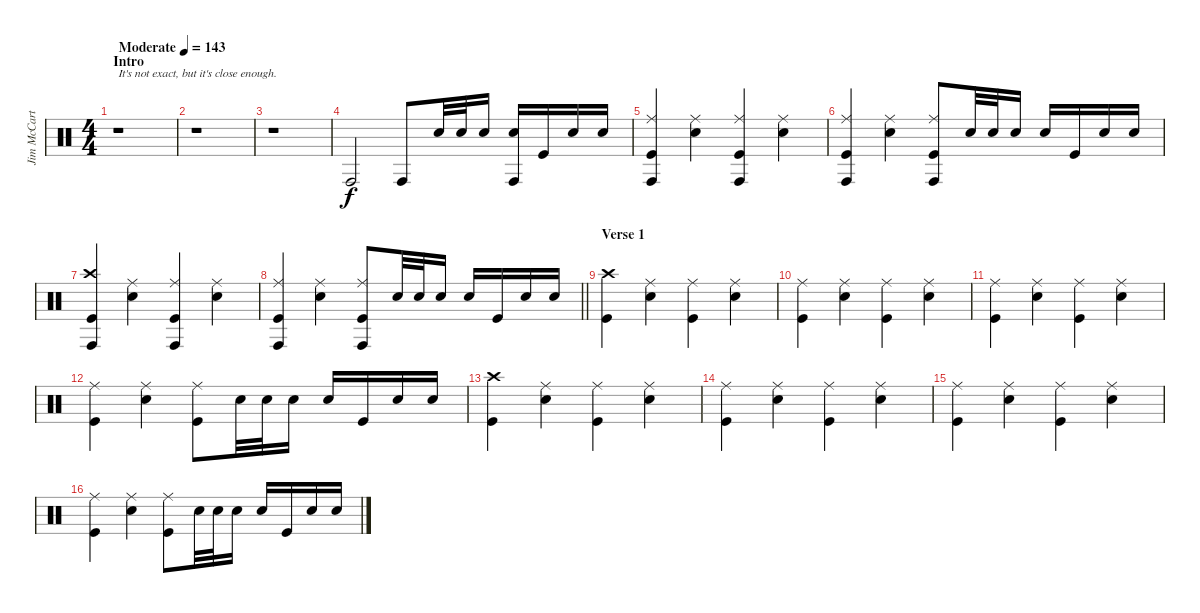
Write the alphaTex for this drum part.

\track ("Jim McCarty" "Jim McCart") {instrument percussion}
\staff {score}
\articulation defaults
\ts (4 4)
\section ("" "Intro")
\tempo (143 "Moderate")
\clef neutral
\ks c
r.1{txt "It's not exact, but it's close enough." dy f} |
r.1 |
r.1 |
"Conga high (hit)".2 "Conga high (hit)".8 "Electric Snare (hit)".32 "Electric Snare (hit)".32 "Electric Snare (hit)".16 ("Electric Snare (hit)" "Conga high (hit)").16 "Kick (hit)".16 "Electric Snare (hit)".16 "Electric Snare (hit)".16 |
("Ride (middle)" "Kick (hit)" "Conga high (hit)").4 ("Ride (middle)" "Electric Snare (hit)").4 ("Ride (middle)" "Kick (hit)" "Conga high (hit)").4 ("Ride (middle)" "Electric Snare (hit)").4 |
("Ride (middle)" "Kick (hit)" "Conga high (hit)").4 ("Ride (middle)" "Electric Snare (hit)").4 ("Ride (middle)" "Kick (hit)" "Conga high (hit)").8 "Electric Snare (hit)".32 "Electric Snare (hit)".32 "Electric Snare (hit)".16 "Electric Snare (hit)".16 "Kick (hit)".16 "Electric Snare (hit)".16 "Electric Snare (hit)".16 |
("Crash high (hit)" "Kick (hit)" "Conga high (hit)").4 ("Ride (middle)" "Electric Snare (hit)").4 ("Ride (middle)" "Kick (hit)" "Conga high (hit)").4 ("Ride (middle)" "Electric Snare (hit)").4 |
\barLineRight lightlight
("Ride (middle)" "Kick (hit)" "Conga high (hit)").4 ("Ride (middle)" "Electric Snare (hit)").4 ("Ride (middle)" "Kick (hit)" "Conga high (hit)").8 "Electric Snare (hit)".32 "Electric Snare (hit)".32 "Electric Snare (hit)".16 "Electric Snare (hit)".16 "Kick (hit)".16 "Electric Snare (hit)".16 "Electric Snare (hit)".16 |
\section ("" "Verse 1")
("Crash high (hit)" "Kick (hit)").4 ("Ride (middle)" "Electric Snare (hit)").4 ("Ride (middle)" "Kick (hit)").4 ("Ride (middle)" "Electric Snare (hit)").4 |
("Ride (middle)" "Kick (hit)").4 ("Ride (middle)" "Electric Snare (hit)").4 ("Ride (middle)" "Kick (hit)").4 ("Ride (middle)" "Electric Snare (hit)").4 |
("Ride (middle)" "Kick (hit)").4 ("Ride (middle)" "Electric Snare (hit)").4 ("Ride (middle)" "Kick (hit)").4 ("Ride (middle)" "Electric Snare (hit)").4 |
("Ride (middle)" "Kick (hit)").4 ("Ride (middle)" "Electric Snare (hit)").4 ("Ride (middle)" "Kick (hit)").8 "Electric Snare (hit)".32 "Electric Snare (hit)".32 "Electric Snare (hit)".16 "Electric Snare (hit)".16 "Kick (hit)".16 "Electric Snare (hit)".16 "Electric Snare (hit)".16 |
("Crash high (hit)" "Kick (hit)").4 ("Ride (middle)" "Electric Snare (hit)").4 ("Ride (middle)" "Kick (hit)").4 ("Ride (middle)" "Electric Snare (hit)").4 |
("Ride (middle)" "Kick (hit)").4 ("Ride (middle)" "Electric Snare (hit)").4 ("Ride (middle)" "Kick (hit)").4 ("Ride (middle)" "Electric Snare (hit)").4 |
("Ride (middle)" "Kick (hit)").4 ("Ride (middle)" "Electric Snare (hit)").4 ("Ride (middle)" "Kick (hit)").4 ("Ride (middle)" "Electric Snare (hit)").4 |
("Ride (middle)" "Kick (hit)").4 ("Ride (middle)" "Electric Snare (hit)").4 ("Ride (middle)" "Kick (hit)").8 "Electric Snare (hit)".32 "Electric Snare (hit)".32 "Electric Snare (hit)".16 "Electric Snare (hit)".16 "Kick (hit)".16 "Electric Snare (hit)".16 "Electric Snare (hit)".16
